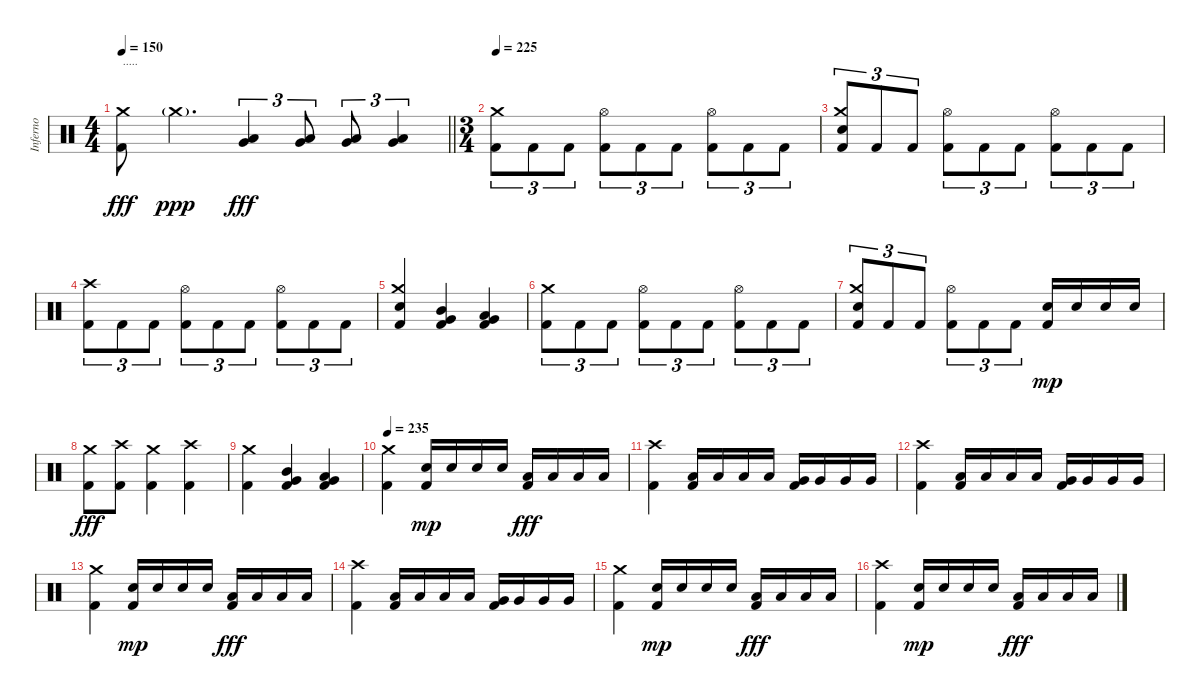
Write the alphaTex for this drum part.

\track ("Inferno" "Inferno") {instrument percussion}
\staff {score}
\articulation defaults
\ts (4 4)
\tempo 150
\clef neutral
\barLineRight lightlight
\ks c
("Kick (hit) 2" "Crash medium (hit)").8{txt "....." dy fff} "Crash medium (hit)"{g}.4{d dy ppp} ("Low Tom (hit)" "Very Low Tom (hit)").4{tu (3 2) dy fff} ("Low Tom (hit)" "Very Low Tom (hit)").8{tu (3 2)} ("Low Tom (hit)" "Very Low Tom (hit)").8{tu (3 2)} ("Low Tom (hit)" "Very Low Tom (hit)").4{tu (3 2)} |
\ts (3 4)
\tempo 225
("Kick (hit) 2" "Crash medium (hit)").8{tu (3 2)} "Kick (hit) 2".8{tu (3 2)} "Kick (hit) 2".8{tu (3 2)} ("Kick (hit) 2" "Hi-Hat (open)").8{tu (3 2)} "Kick (hit) 2".8{tu (3 2)} "Kick (hit) 2".8{tu (3 2)} ("Kick (hit) 2" "Hi-Hat (open)").8{tu (3 2)} "Kick (hit) 2".8{tu (3 2)} "Kick (hit) 2".8{tu (3 2)} |
("Kick (hit) 2" "Electric Snare (hit)" "Crash medium (hit)").8{tu (3 2)} "Kick (hit) 2".8{tu (3 2)} "Kick (hit) 2".8{tu (3 2)} ("Kick (hit) 2" "Hi-Hat (open)").8{tu (3 2)} "Kick (hit) 2".8{tu (3 2)} "Kick (hit) 2".8{tu (3 2)} ("Kick (hit) 2" "Hi-Hat (open)").8{tu (3 2)} "Kick (hit) 2".8{tu (3 2)} "Kick (hit) 2".8{tu (3 2)} |
("Kick (hit) 2" "Crash high (hit)").8{tu (3 2)} "Kick (hit) 2".8{tu (3 2)} "Kick (hit) 2".8{tu (3 2)} ("Kick (hit) 2" "Hi-Hat (open)").8{tu (3 2)} "Kick (hit) 2".8{tu (3 2)} "Kick (hit) 2".8{tu (3 2)} ("Kick (hit) 2" "Hi-Hat (open)").8{tu (3 2)} "Kick (hit) 2".8{tu (3 2)} "Kick (hit) 2".8{tu (3 2)} |
("Kick (hit) 2" "Electric Snare (hit)" "Crash medium (hit)").4 ("Kick (hit) 2" "Mid Tom (hit)" "Very Low Tom (hit)").4 ("Kick (hit) 2" "Low Tom (hit)" "Very Low Tom (hit)").4 |
("Kick (hit) 2" "Crash medium (hit)").8{tu (3 2)} "Kick (hit) 2".8{tu (3 2)} "Kick (hit) 2".8{tu (3 2)} ("Kick (hit) 2" "Hi-Hat (open)").8{tu (3 2)} "Kick (hit) 2".8{tu (3 2)} "Kick (hit) 2".8{tu (3 2)} ("Kick (hit) 2" "Hi-Hat (open)").8{tu (3 2)} "Kick (hit) 2".8{tu (3 2)} "Kick (hit) 2".8{tu (3 2)} |
("Kick (hit) 2" "Electric Snare (hit)" "Crash medium (hit)").8{tu (3 2)} "Kick (hit) 2".8{tu (3 2)} "Kick (hit) 2".8{tu (3 2)} ("Kick (hit) 2" "Hi-Hat (open)").8{tu (3 2)} "Kick (hit) 2".8{tu (3 2)} "Kick (hit) 2".8{tu (3 2)} ("Kick (hit) 2" "Electric Snare (hit)").16{dy mp} "Electric Snare (hit)".16 "Electric Snare (hit)".16 "Electric Snare (hit)".16 |
("Kick (hit) 2" "Crash medium (hit)").8{dy fff} ("Kick (hit) 2" "Crash high (hit)").8 ("Kick (hit) 2" "Crash medium (hit)").4 ("Kick (hit) 2" "Crash high (hit)").4 |
("Kick (hit) 2" "Crash medium (hit)").4 ("Kick (hit) 2" "Mid Tom (hit)" "Very Low Tom (hit)").4 ("Kick (hit) 2" "Low Tom (hit)" "Very Low Tom (hit)").4 |
\tempo 235
("Kick (hit) 2" "Crash medium (hit)").4 ("Kick (hit) 2" "Electric Snare (hit)").16{dy mp} "Electric Snare (hit)".16 "Electric Snare (hit)".16 "Electric Snare (hit)".16 ("Kick (hit) 2" "Low Tom (hit)").16{dy fff} "Low Tom (hit)".16 "Low Tom (hit)".16 "Low Tom (hit)".16 |
("Kick (hit) 2" "Crash high (hit)").4 ("Kick (hit) 2" "Low Tom (hit)").16 "Low Tom (hit)".16 "Low Tom (hit)".16 "Low Tom (hit)".16 ("Kick (hit) 2" "Very Low Tom (hit)").16 "Very Low Tom (hit)".16 "Very Low Tom (hit)".16 "Very Low Tom (hit)".16 |
("Kick (hit) 2" "Crash high (hit)").4 ("Kick (hit) 2" "Low Tom (hit)").16 "Low Tom (hit)".16 "Low Tom (hit)".16 "Low Tom (hit)".16 ("Kick (hit) 2" "Very Low Tom (hit)").16 "Very Low Tom (hit)".16 "Very Low Tom (hit)".16 "Very Low Tom (hit)".16 |
("Kick (hit) 2" "Crash medium (hit)").4 ("Kick (hit) 2" "Electric Snare (hit)").16{dy mp} "Electric Snare (hit)".16 "Electric Snare (hit)".16 "Electric Snare (hit)".16 ("Kick (hit) 2" "Low Tom (hit)").16{dy fff} "Low Tom (hit)".16 "Low Tom (hit)".16 "Low Tom (hit)".16 |
("Kick (hit) 2" "Crash high (hit)").4 ("Kick (hit) 2" "Low Tom (hit)").16 "Low Tom (hit)".16 "Low Tom (hit)".16 "Low Tom (hit)".16 ("Kick (hit) 2" "Very Low Tom (hit)").16 "Very Low Tom (hit)".16 "Very Low Tom (hit)".16 "Very Low Tom (hit)".16 |
("Kick (hit) 2" "Crash medium (hit)").4 ("Kick (hit) 2" "Electric Snare (hit)").16{dy mp} "Electric Snare (hit)".16 "Electric Snare (hit)".16 "Electric Snare (hit)".16 ("Kick (hit) 2" "Low Tom (hit)").16{dy fff} "Low Tom (hit)".16 "Low Tom (hit)".16 "Low Tom (hit)".16 |
("Kick (hit) 2" "Crash high (hit)").4 ("Kick (hit) 2" "Electric Snare (hit)").16{dy mp} "Electric Snare (hit)".16 "Electric Snare (hit)".16 "Electric Snare (hit)".16 ("Kick (hit) 2" "Low Tom (hit)").16{dy fff} "Low Tom (hit)".16 "Low Tom (hit)".16 "Low Tom (hit)".16
